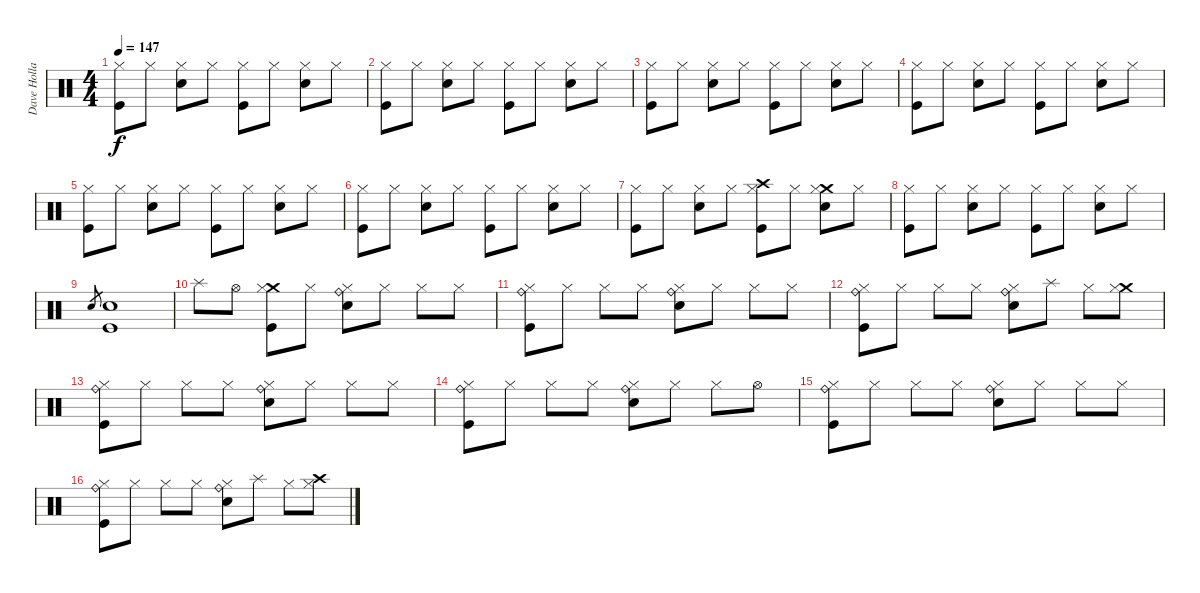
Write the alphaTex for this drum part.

\track ("Dave Holland" "Dave Holla") {instrument percussion}
\staff {score}
\articulation defaults
\ts (4 4)
\tempo 147
\clef neutral
\ks c
("Kick (hit)" "Hi-Hat (closed)").8{dy f} "Hi-Hat (closed)".8 ("Electric Snare (hit)" "Hi-Hat (closed)").8 "Hi-Hat (closed)".8 ("Kick (hit)" "Hi-Hat (closed)").8 "Hi-Hat (closed)".8 ("Electric Snare (hit)" "Hi-Hat (closed)").8 "Hi-Hat (closed)".8 |
("Kick (hit)" "Hi-Hat (closed)").8 "Hi-Hat (closed)".8 ("Electric Snare (hit)" "Hi-Hat (closed)").8 "Hi-Hat (closed)".8 ("Kick (hit)" "Hi-Hat (closed)").8 "Hi-Hat (closed)".8 ("Electric Snare (hit)" "Hi-Hat (closed)").8 "Hi-Hat (closed)".8 |
("Kick (hit)" "Hi-Hat (closed)").8 "Hi-Hat (closed)".8 ("Electric Snare (hit)" "Hi-Hat (closed)").8 "Hi-Hat (closed)".8 ("Kick (hit)" "Hi-Hat (closed)").8 "Hi-Hat (closed)".8 ("Electric Snare (hit)" "Hi-Hat (closed)").8 "Hi-Hat (closed)".8 |
("Kick (hit)" "Hi-Hat (closed)").8 "Hi-Hat (closed)".8 ("Electric Snare (hit)" "Hi-Hat (closed)").8 "Hi-Hat (closed)".8 ("Kick (hit)" "Hi-Hat (closed)").8 "Hi-Hat (closed)".8 ("Electric Snare (hit)" "Hi-Hat (closed)").8 "Hi-Hat (closed)".8 |
("Kick (hit)" "Hi-Hat (closed)").8 "Hi-Hat (closed)".8 ("Electric Snare (hit)" "Hi-Hat (closed)").8 "Hi-Hat (closed)".8 ("Kick (hit)" "Hi-Hat (closed)").8 "Hi-Hat (closed)".8 ("Electric Snare (hit)" "Hi-Hat (closed)").8 "Hi-Hat (closed)".8 |
("Kick (hit)" "Hi-Hat (closed)").8 "Hi-Hat (closed)".8 ("Electric Snare (hit)" "Hi-Hat (closed)").8 "Hi-Hat (closed)".8 ("Kick (hit)" "Hi-Hat (closed)").8 "Hi-Hat (closed)".8 ("Electric Snare (hit)" "Hi-Hat (closed)").8 "Hi-Hat (closed)".8 |
("Kick (hit)" "Hi-Hat (closed)").8 "Hi-Hat (closed)".8 ("Electric Snare (hit)" "Hi-Hat (closed)").8 "Hi-Hat (closed)".8 ("Kick (hit)" "Crash high (hit)" "Hi-Hat (closed)").8 "Hi-Hat (closed)".8 ("Electric Snare (hit)" "Crash medium (hit)" "Hi-Hat (closed)").8 "Hi-Hat (closed)".8 |
("Kick (hit)" "Hi-Hat (closed)").8 "Hi-Hat (closed)".8 ("Electric Snare (hit)" "Hi-Hat (closed)").8 "Hi-Hat (closed)".8 ("Kick (hit)" "Hi-Hat (closed)").8 "Hi-Hat (closed)".8 ("Electric Snare (hit)" "Hi-Hat (closed)").8 "Hi-Hat (closed)".8 |
"Electric Snare (hit)".8{gr} ("Kick (hit)" "Electric Snare (hit)").1 |
"Splash (hit)".8 "Hi-Hat (open)".8 ("Kick (hit)" "Crash medium (hit)" "Hi-Hat (closed)").8 "Hi-Hat (closed)".8 ("Electric Snare (hit)" "Ride (bell)" "Hi-Hat (closed)").8 "Hi-Hat (closed)".8 "Hi-Hat (closed)".8 "Hi-Hat (closed)".8 |
("Kick (hit)" "Ride (bell)" "Hi-Hat (closed)").8 "Hi-Hat (closed)".8 "Hi-Hat (closed)".8 "Hi-Hat (closed)".8 ("Electric Snare (hit)" "Ride (bell)" "Hi-Hat (closed)").8 "Hi-Hat (closed)".8 "Hi-Hat (closed)".8 "Hi-Hat (closed)".8 |
("Kick (hit)" "Ride (bell)" "Hi-Hat (closed)").8 "Hi-Hat (closed)".8 "Hi-Hat (closed)".8 "Hi-Hat (closed)".8 ("Electric Snare (hit)" "Ride (bell)" "Hi-Hat (closed)").8 "Splash (hit)".8 "Hi-Hat (closed)".8 ("Crash medium (hit)" "Hi-Hat (closed)").8 |
("Kick (hit)" "Ride (bell)" "Hi-Hat (closed)").8 "Hi-Hat (closed)".8 "Hi-Hat (closed)".8 "Hi-Hat (closed)".8 ("Electric Snare (hit)" "Ride (bell)" "Hi-Hat (closed)").8 "Hi-Hat (closed)".8 "Hi-Hat (closed)".8 "Hi-Hat (closed)".8 |
("Kick (hit)" "Ride (bell)" "Hi-Hat (closed)").8 "Hi-Hat (closed)".8 "Hi-Hat (closed)".8 "Hi-Hat (closed)".8 ("Electric Snare (hit)" "Ride (bell)" "Hi-Hat (closed)").8 "Hi-Hat (closed)".8 "Hi-Hat (closed)".8 "Hi-Hat (open)".8 |
("Kick (hit)" "Ride (bell)" "Hi-Hat (closed)").8 "Hi-Hat (closed)".8 "Hi-Hat (closed)".8 "Hi-Hat (closed)".8 ("Electric Snare (hit)" "Ride (bell)" "Hi-Hat (closed)").8 "Hi-Hat (closed)".8 "Hi-Hat (closed)".8 "Hi-Hat (closed)".8 |
("Kick (hit)" "Ride (bell)" "Hi-Hat (closed)").8 "Hi-Hat (closed)".8 "Hi-Hat (closed)".8 "Hi-Hat (closed)".8 ("Electric Snare (hit)" "Ride (bell)" "Hi-Hat (closed)").8 "Splash (hit)".8 "Hi-Hat (closed)".8 ("Crash high (hit)" "Hi-Hat (closed)").8
